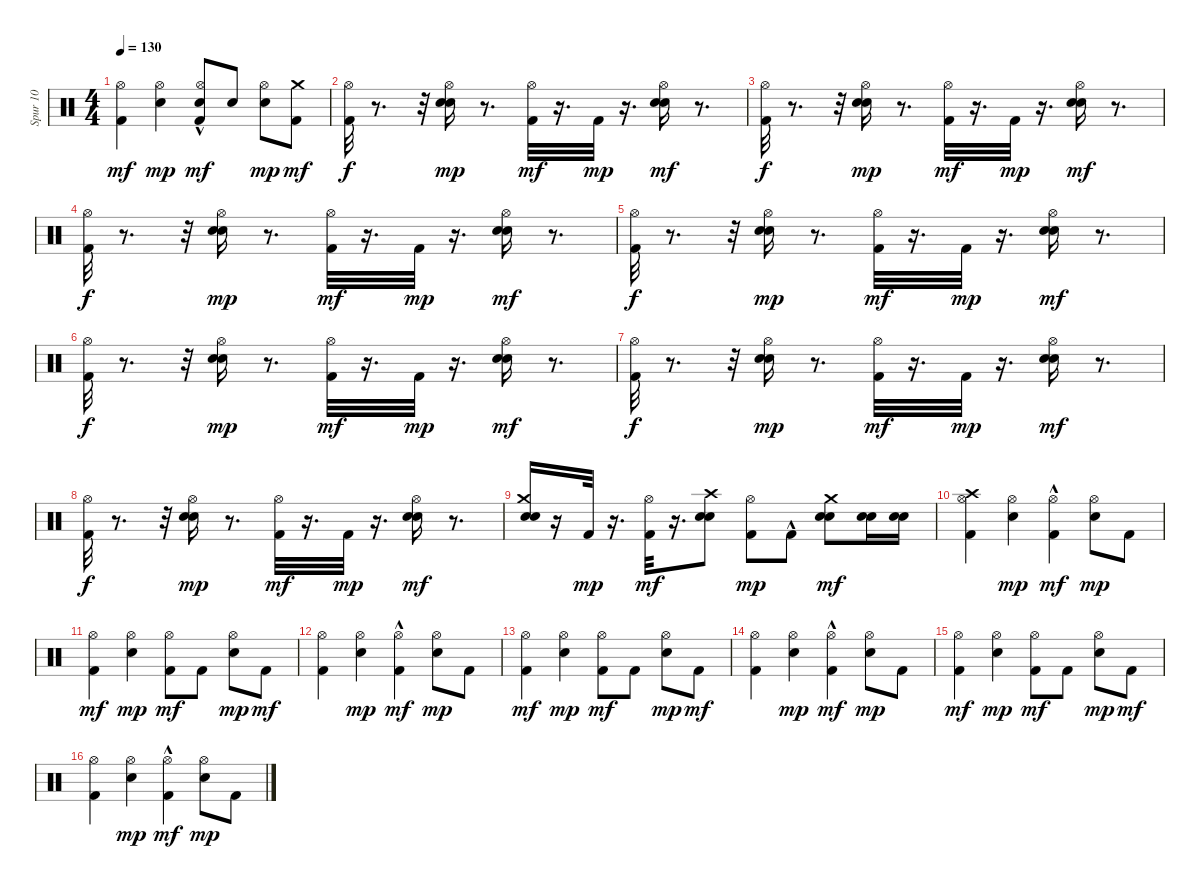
\track ("Spur 10" "Spur 10") {instrument percussion}
\staff {score}
\articulation defaults
\ts (4 4)
\tempo 130
\clef neutral
\ks c
("Kick (hit) 2" "Hi-Hat (open)").4{dy mf} ("Snare (hit) 2" "Hi-Hat (open)").4{dy mp} ("Snare (hit) 2" "Kick (hit) 2"{hac} "Hi-Hat (open)").8{dy mf} "Snare (hit) 2".8 ("Snare (hit) 2" "Hi-Hat (open)").8{dy mp} ("Crash medium (hit)" "Kick (hit) 2").8{dy mf} |
("Kick (hit) 2" "Hi-Hat (open)").32{dy f} r.8{d} r.32 ("Electric Snare (hit)" "Snare (hit) 2" "Hi-Hat (open)").16{dy mp} r.8{d} ("Kick (hit) 2" "Hi-Hat (open)").32{dy mf} r.16{d} "Kick (hit) 2".32{dy mp} r.16{d} ("Electric Snare (hit)" "Snare (hit) 2" "Hi-Hat (open)").16{dy mf} r.8{d} |
("Kick (hit) 2" "Hi-Hat (open)").32{dy f} r.8{d} r.32 ("Electric Snare (hit)" "Snare (hit) 2" "Hi-Hat (open)").16{dy mp} r.8{d} ("Kick (hit) 2" "Hi-Hat (open)").32{dy mf} r.16{d} "Kick (hit) 2".32{dy mp} r.16{d} ("Electric Snare (hit)" "Snare (hit) 2" "Hi-Hat (open)").16{dy mf} r.8{d} |
("Kick (hit) 2" "Hi-Hat (open)").32{dy f} r.8{d} r.32 ("Electric Snare (hit)" "Snare (hit) 2" "Hi-Hat (open)").16{dy mp} r.8{d} ("Kick (hit) 2" "Hi-Hat (open)").32{dy mf} r.16{d} "Kick (hit) 2".32{dy mp} r.16{d} ("Electric Snare (hit)" "Snare (hit) 2" "Hi-Hat (open)").16{dy mf} r.8{d} |
("Kick (hit) 2" "Hi-Hat (open)").32{dy f} r.8{d} r.32 ("Electric Snare (hit)" "Snare (hit) 2" "Hi-Hat (open)").16{dy mp} r.8{d} ("Kick (hit) 2" "Hi-Hat (open)").32{dy mf} r.16{d} "Kick (hit) 2".32{dy mp} r.16{d} ("Electric Snare (hit)" "Snare (hit) 2" "Hi-Hat (open)").16{dy mf} r.8{d} |
("Kick (hit) 2" "Hi-Hat (open)").32{dy f} r.8{d} r.32 ("Electric Snare (hit)" "Snare (hit) 2" "Hi-Hat (open)").16{dy mp} r.8{d} ("Kick (hit) 2" "Hi-Hat (open)").32{dy mf} r.16{d} "Kick (hit) 2".32{dy mp} r.16{d} ("Electric Snare (hit)" "Snare (hit) 2" "Hi-Hat (open)").16{dy mf} r.8{d} |
("Kick (hit) 2" "Hi-Hat (open)").32{dy f} r.8{d} r.32 ("Electric Snare (hit)" "Snare (hit) 2" "Hi-Hat (open)").16{dy mp} r.8{d} ("Kick (hit) 2" "Hi-Hat (open)").32{dy mf} r.16{d} "Kick (hit) 2".32{dy mp} r.16{d} ("Electric Snare (hit)" "Snare (hit) 2" "Hi-Hat (open)").16{dy mf} r.8{d} |
("Kick (hit) 2" "Hi-Hat (open)").32{dy f} r.8{d} r.32 ("Electric Snare (hit)" "Snare (hit) 2" "Hi-Hat (open)").16{dy mp} r.8{d} ("Kick (hit) 2" "Hi-Hat (open)").32{dy mf} r.16{d} "Kick (hit) 2".32{dy mp} r.16{d} ("Electric Snare (hit)" "Snare (hit) 2" "Hi-Hat (open)").16{dy mf} r.8{d} |
("Electric Snare (hit)" "Snare (hit) 2" "Crash medium (hit)").16 r.16 "Kick (hit) 2".32{dy mp} r.16{d} ("Kick (hit) 2" "Hi-Hat (open)").32{dy mf} r.16{d} ("Electric Snare (hit)" "Snare (hit) 2" "Crash high (hit)").8 ("Kick (hit) 2" "Hi-Hat (open)").8{dy mp} "Kick (hit) 2"{hac}.8 ("Electric Snare (hit)" "Snare (hit) 2" "Crash medium (hit)").8{dy mf} ("Electric Snare (hit)" "Snare (hit) 2").16 ("Electric Snare (hit)" "Snare (hit) 2").16 |
("Crash high (hit)" "Kick (hit) 2" "Hi-Hat (open)").4 ("Snare (hit) 2" "Hi-Hat (open)").4{dy mp} ("Kick (hit) 2"{hac} "Hi-Hat (open)").4{dy mf} ("Snare (hit) 2" "Hi-Hat (open)").8{dy mp} "Kick (hit) 2".8 |
("Kick (hit) 2" "Hi-Hat (open)").4{dy mf} ("Snare (hit) 2" "Hi-Hat (open)").4{dy mp} ("Kick (hit) 2" "Hi-Hat (open)").8{dy mf} "Kick (hit) 2".8 ("Snare (hit) 2" "Hi-Hat (open)").8{dy mp} "Kick (hit) 2".8{dy mf} |
("Kick (hit) 2" "Hi-Hat (open)").4 ("Snare (hit) 2" "Hi-Hat (open)").4{dy mp} ("Kick (hit) 2"{hac} "Hi-Hat (open)").4{dy mf} ("Snare (hit) 2" "Hi-Hat (open)").8{dy mp} "Kick (hit) 2".8 |
("Kick (hit) 2" "Hi-Hat (open)").4{dy mf} ("Snare (hit) 2" "Hi-Hat (open)").4{dy mp} ("Kick (hit) 2" "Hi-Hat (open)").8{dy mf} "Kick (hit) 2".8 ("Snare (hit) 2" "Hi-Hat (open)").8{dy mp} "Kick (hit) 2".8{dy mf} |
("Kick (hit) 2" "Hi-Hat (open)").4 ("Snare (hit) 2" "Hi-Hat (open)").4{dy mp} ("Kick (hit) 2"{hac} "Hi-Hat (open)").4{dy mf} ("Snare (hit) 2" "Hi-Hat (open)").8{dy mp} "Kick (hit) 2".8 |
("Kick (hit) 2" "Hi-Hat (open)").4{dy mf} ("Snare (hit) 2" "Hi-Hat (open)").4{dy mp} ("Kick (hit) 2" "Hi-Hat (open)").8{dy mf} "Kick (hit) 2".8 ("Snare (hit) 2" "Hi-Hat (open)").8{dy mp} "Kick (hit) 2".8{dy mf} |
("Kick (hit) 2" "Hi-Hat (open)").4 ("Snare (hit) 2" "Hi-Hat (open)").4{dy mp} ("Kick (hit) 2"{hac} "Hi-Hat (open)").4{dy mf} ("Snare (hit) 2" "Hi-Hat (open)").8{dy mp} "Kick (hit) 2".8
